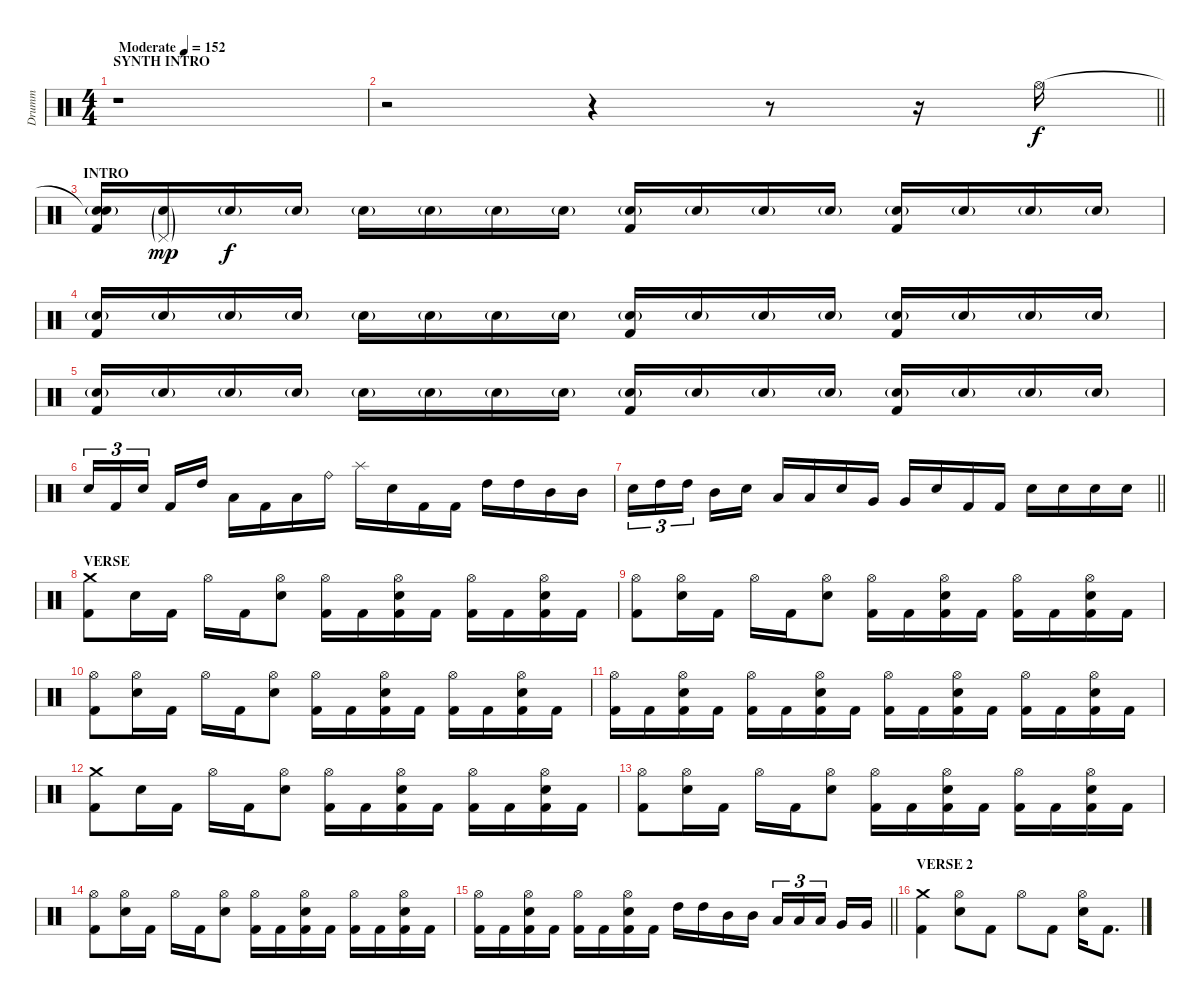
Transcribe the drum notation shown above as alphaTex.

\track ("Drumm" "Drumm") {instrument percussion}
\staff {score}
\articulation defaults
\ts (4 4)
\section ("" "SYNTH INTRO")
\tempo (152 "Moderate")
\clef neutral
\ks c
r.1{dy f} |
\barLineRight lightlight
r.2 r.4 r.8 r.16 "Hi-Hat (open)".16 |
\section ("" "INTRO")
("Snare (hit)"{t} "Snare (hit) 2"{g} "Kick (hit) 2").16 ("Pedal Hi-Hat (hit)"{g} "Snare (hit) 2"{g}).16{dy mp} "Snare (hit) 2"{g}.16{dy f} "Snare (hit) 2"{g}.16 "Snare (hit) 2"{g}.16 "Snare (hit) 2"{g}.16 "Snare (hit) 2"{g}.16 "Snare (hit) 2"{g}.16 ("Snare (hit) 2"{g} "Kick (hit) 2").16 "Snare (hit) 2"{g}.16 "Snare (hit) 2"{g}.16 "Snare (hit) 2"{g}.16 ("Snare (hit) 2"{g} "Kick (hit) 2").16 "Snare (hit) 2"{g}.16 "Snare (hit) 2"{g}.16 "Snare (hit) 2"{g}.16 |
("Snare (hit) 2"{g} "Kick (hit) 2").16 "Snare (hit) 2"{g}.16 "Snare (hit) 2"{g}.16 "Snare (hit) 2"{g}.16 "Snare (hit) 2"{g}.16 "Snare (hit) 2"{g}.16 "Snare (hit) 2"{g}.16 "Snare (hit) 2"{g}.16 ("Snare (hit) 2"{g} "Kick (hit) 2").16 "Snare (hit) 2"{g}.16 "Snare (hit) 2"{g}.16 "Snare (hit) 2"{g}.16 ("Snare (hit) 2"{g} "Kick (hit) 2").16 "Snare (hit) 2"{g}.16 "Snare (hit) 2"{g}.16 "Snare (hit) 2"{g}.16 |
("Snare (hit) 2"{g} "Kick (hit) 2").16 "Snare (hit) 2"{g}.16 "Snare (hit) 2"{g}.16 "Snare (hit) 2"{g}.16 "Snare (hit) 2"{g}.16 "Snare (hit) 2"{g}.16 "Snare (hit) 2"{g}.16 "Snare (hit) 2"{g}.16 ("Snare (hit) 2"{g} "Kick (hit) 2").16 "Snare (hit) 2"{g}.16 "Snare (hit) 2"{g}.16 "Snare (hit) 2"{g}.16 ("Snare (hit) 2"{g} "Kick (hit) 2").16 "Snare (hit) 2"{g}.16 "Snare (hit) 2"{g}.16 "Snare (hit) 2"{g}.16 |
"Snare (hit) 2".16{tu (3 2)} "Kick (hit) 2".16{tu (3 2)} "Snare (hit) 2".16{tu (3 2) beam splitsecondary} "Kick (hit) 2".16 "High Tom (hit)".16 "Low Tom (hit)".16 "Kick (hit) 2".16 "Low Tom (hit)".16 "Ride (bell)".16 "Splash (hit)".16 "Snare (hit) 2".16 "Kick (hit) 2".16 "Kick (hit) 2".16 "High Tom (hit)".16 "High Tom (hit)".16 "Mid Tom (hit)".16 "Mid Tom (hit)".16 |
\barLineRight lightlight "Snare (hit) 2".16{tu (3 2)} "High Tom (hit)".16{tu (3 2)} "High Tom (hit)".16{tu (3 2) beam splitsecondary} "Mid Tom (hit)".16 "Snare (hit) 2".16 "Low Tom (hit)".16 "Low Tom (hit)".16 "Snare (hit) 2".16 "Very Low Tom (hit)".16 "Very Low Tom (hit)".16 "Snare (hit) 2".16 "Kick (hit) 2".16 "Kick (hit) 2".16 "Snare (hit) 2".16 "Snare (hit) 2".16 "Snare (hit) 2".16 "Snare (hit) 2".16
|
\section ("" "VERSE")
("Crash medium (hit)" "Kick (hit) 2").8 "Snare (hit) 2".16 "Kick (hit) 2".16 "Hi-Hat (open)".16 "Kick (hit) 2".16 ("Hi-Hat (open)" "Snare (hit) 2").8 ("Hi-Hat (open)" "Kick (hit) 2").16 "Kick (hit) 2".16 ("Hi-Hat (open)" "Snare (hit) 2" "Kick (hit) 2").16 "Kick (hit) 2".16 ("Hi-Hat (open)" "Kick (hit) 2").16 "Kick (hit) 2".16 ("Hi-Hat (open)" "Snare (hit) 2" "Kick (hit) 2").16 "Kick (hit) 2".16 |
("Hi-Hat (open)" "Kick (hit) 2").8 ("Hi-Hat (open)" "Snare (hit) 2").16 "Kick (hit) 2".16 "Hi-Hat (open)".16 "Kick (hit) 2".16 ("Hi-Hat (open)" "Snare (hit) 2").8 ("Hi-Hat (open)" "Kick (hit) 2").16 "Kick (hit) 2".16 ("Hi-Hat (open)" "Snare (hit) 2" "Kick (hit) 2").16 "Kick (hit) 2".16 ("Hi-Hat (open)" "Kick (hit) 2").16 "Kick (hit) 2".16 ("Hi-Hat (open)" "Snare (hit) 2" "Kick (hit) 2").16 "Kick (hit) 2".16 |
("Hi-Hat (open)" "Kick (hit) 2").8 ("Hi-Hat (open)" "Snare (hit) 2").16 "Kick (hit) 2".16 "Hi-Hat (open)".16 "Kick (hit) 2".16 ("Hi-Hat (open)" "Snare (hit) 2").8 ("Hi-Hat (open)" "Kick (hit) 2").16 "Kick (hit) 2".16 ("Hi-Hat (open)" "Snare (hit) 2" "Kick (hit) 2").16 "Kick (hit) 2".16 ("Hi-Hat (open)" "Kick (hit) 2").16 "Kick (hit) 2".16 ("Hi-Hat (open)" "Snare (hit) 2" "Kick (hit) 2").16 "Kick (hit) 2".16 |
("Hi-Hat (open)" "Kick (hit) 2").16 "Kick (hit) 2".16 ("Hi-Hat (open)" "Snare (hit) 2" "Kick (hit) 2").16 "Kick (hit) 2".16 ("Hi-Hat (open)" "Kick (hit) 2").16 "Kick (hit) 2".16 ("Hi-Hat (open)" "Snare (hit) 2" "Kick (hit) 2").16 "Kick (hit) 2".16 ("Hi-Hat (open)" "Kick (hit) 2").16 "Kick (hit) 2".16 ("Hi-Hat (open)" "Snare (hit) 2" "Kick (hit) 2").16 "Kick (hit) 2".16 ("Hi-Hat (open)" "Kick (hit) 2").16 "Kick (hit) 2".16 ("Hi-Hat (open)" "Snare (hit) 2" "Kick (hit) 2").16 "Kick (hit) 2".16 |
("Crash medium (hit)" "Kick (hit) 2").8 "Snare (hit) 2".16 "Kick (hit) 2".16 "Hi-Hat (open)".16 "Kick (hit) 2".16 ("Hi-Hat (open)" "Snare (hit) 2").8 ("Hi-Hat (open)" "Kick (hit) 2").16 "Kick (hit) 2".16 ("Hi-Hat (open)" "Snare (hit) 2" "Kick (hit) 2").16 "Kick (hit) 2".16 ("Hi-Hat (open)" "Kick (hit) 2").16 "Kick (hit) 2".16 ("Hi-Hat (open)" "Snare (hit) 2" "Kick (hit) 2").16 "Kick (hit) 2".16 |
("Hi-Hat (open)" "Kick (hit) 2").8 ("Hi-Hat (open)" "Snare (hit) 2").16 "Kick (hit) 2".16 "Hi-Hat (open)".16 "Kick (hit) 2".16 ("Hi-Hat (open)" "Snare (hit) 2").8 ("Hi-Hat (open)" "Kick (hit) 2").16 "Kick (hit) 2".16 ("Hi-Hat (open)" "Snare (hit) 2" "Kick (hit) 2").16 "Kick (hit) 2".16 ("Hi-Hat (open)" "Kick (hit) 2").16 "Kick (hit) 2".16 ("Hi-Hat (open)" "Snare (hit) 2" "Kick (hit) 2").16 "Kick (hit) 2".16 |
("Hi-Hat (open)" "Kick (hit) 2").8 ("Hi-Hat (open)" "Snare (hit) 2").16 "Kick (hit) 2".16 "Hi-Hat (open)".16 "Kick (hit) 2".16 ("Hi-Hat (open)" "Snare (hit) 2").8 ("Hi-Hat (open)" "Kick (hit) 2").16 "Kick (hit) 2".16 ("Hi-Hat (open)" "Snare (hit) 2" "Kick (hit) 2").16 "Kick (hit) 2".16 ("Hi-Hat (open)" "Kick (hit) 2").16 "Kick (hit) 2".16 ("Hi-Hat (open)" "Snare (hit) 2" "Kick (hit) 2").16 "Kick (hit) 2".16 |
\barLineRight lightlight
("Hi-Hat (open)" "Kick (hit) 2").16 "Kick (hit) 2".16 ("Hi-Hat (open)" "Snare (hit) 2" "Kick (hit) 2").16 "Kick (hit) 2".16 ("Hi-Hat (open)" "Kick (hit) 2").16 "Kick (hit) 2".16 ("Hi-Hat (open)" "Snare (hit) 2" "Kick (hit) 2").16 "Kick (hit) 2".16 "High Tom (hit)".16 "High Tom (hit)".16 "Mid Tom (hit)".16 "Mid Tom (hit)".16 "Low Tom (hit)".16{tu (3 2)} "Low Tom (hit)".16{tu (3 2)} "Low Tom (hit)".16{tu (3 2) beam splitsecondary} "Very Low Tom (hit)".16 "Very Low Tom (hit)".16 |
\section ("" "VERSE 2")
("Crash medium (hit)" "Kick (hit) 2").4 ("Hi-Hat (open)" "Snare (hit) 2").8 "Kick (hit) 2".8 "Hi-Hat (open)".8 "Kick (hit) 2".8 ("Hi-Hat (open)" "Snare (hit) 2").16 "Kick (hit) 2".8{d}
